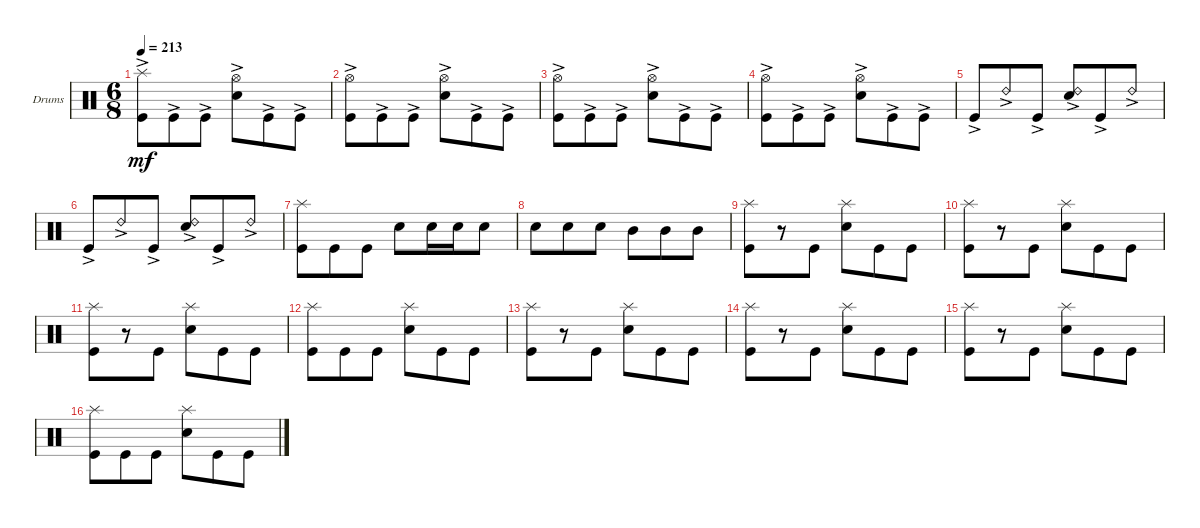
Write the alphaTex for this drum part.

\bracketExtendMode groupsimilarinstruments
\firstSystemTrackNameOrientation horizontal
\otherSystemsTrackNameOrientation horizontal
\track ("Drumkit" "Drums") {instrument percussion}
\staff {score}
\articulation defaults
\ts (6 8)
\tempo 213
\clef neutral
\ks c
("Kick (hit)"{ac} "Splash (hit)"{ac}).8{dy mf} "Kick (hit)"{ac}.8 "Kick (hit)"{ac}.8 ("Snare (hit) 2"{ac} "Hi-Hat (open)"{ac}).8 "Kick (hit)"{ac}.8 "Kick (hit)"{ac}.8 |
("Kick (hit)"{ac} "Hi-Hat (open)"{ac}).8 "Kick (hit)"{ac}.8 "Kick (hit)"{ac}.8 ("Snare (hit) 2"{ac} "Hi-Hat (open)"{ac}).8 "Kick (hit)"{ac}.8 "Kick (hit)"{ac}.8 |
("Kick (hit)"{ac} "Hi-Hat (open)"{ac}).8 "Kick (hit)"{ac}.8 "Kick (hit)"{ac}.8 ("Snare (hit) 2"{ac} "Hi-Hat (open)"{ac}).8 "Kick (hit)"{ac}.8 "Kick (hit)"{ac}.8 |
("Kick (hit)"{ac} "Hi-Hat (open)"{ac}).8 "Kick (hit)"{ac}.8 "Kick (hit)"{ac}.8 ("Snare (hit) 2"{ac} "Hi-Hat (open)"{ac}).8 "Kick (hit)"{ac}.8 "Kick (hit)"{ac}.8 |
"Kick (hit)"{ac}.8 "Ride (bell) 2"{ac}.8 "Kick (hit)"{ac}.8 ("Snare (hit) 2"{ac} "Ride (bell) 2"{ac}).8 "Kick (hit)"{ac}.8 "Ride (bell) 2"{ac}.8 |
"Kick (hit)"{ac}.8 "Ride (bell) 2"{ac}.8 "Kick (hit)"{ac}.8 ("Snare (hit) 2"{ac} "Ride (bell) 2"{ac}).8 "Kick (hit)"{ac}.8 "Ride (bell) 2"{ac}.8 |
("Splash (hit)" "Kick (hit)").8 "Kick (hit)".8 "Kick (hit)".8 "Snare (hit) 2".8 "Snare (hit) 2".16 "Snare (hit) 2".16 "Snare (hit) 2".8 |
"Snare (hit) 2".8 "Snare (hit) 2".8 "Snare (hit) 2".8 "Mid Tom (hit)".8 "Mid Tom (hit)".8 "Mid Tom (hit)".8 |
("Kick (hit)" "Splash (hit)").8 r.8 "Kick (hit)".8 ("Snare (hit) 2" "Splash (hit)").8 "Kick (hit)".8 "Kick (hit)".8 |
("Kick (hit)" "Splash (hit)").8 r.8 "Kick (hit)".8 ("Snare (hit) 2" "Splash (hit)").8 "Kick (hit)".8 "Kick (hit)".8 |
("Kick (hit)" "Splash (hit)").8 r.8 "Kick (hit)".8 ("Snare (hit) 2" "Splash (hit)").8 "Kick (hit)".8 "Kick (hit)".8 |
("Kick (hit)" "Splash (hit)").8 "Kick (hit)".8 "Kick (hit)".8 ("Snare (hit) 2" "Splash (hit)").8 "Kick (hit)".8 "Kick (hit)".8 |
("Kick (hit)" "Splash (hit)").8 r.8 "Kick (hit)".8 ("Snare (hit) 2" "Splash (hit)").8 "Kick (hit)".8 "Kick (hit)".8 |
("Kick (hit)" "Splash (hit)").8 r.8 "Kick (hit)".8 ("Snare (hit) 2" "Splash (hit)").8 "Kick (hit)".8 "Kick (hit)".8 |
("Kick (hit)" "Splash (hit)").8 r.8 "Kick (hit)".8 ("Snare (hit) 2" "Splash (hit)").8 "Kick (hit)".8 "Kick (hit)".8 |
("Kick (hit)" "Splash (hit)").8 "Kick (hit)".8 "Kick (hit)".8 ("Snare (hit) 2" "Splash (hit)").8 "Kick (hit)".8 "Kick (hit)".8
